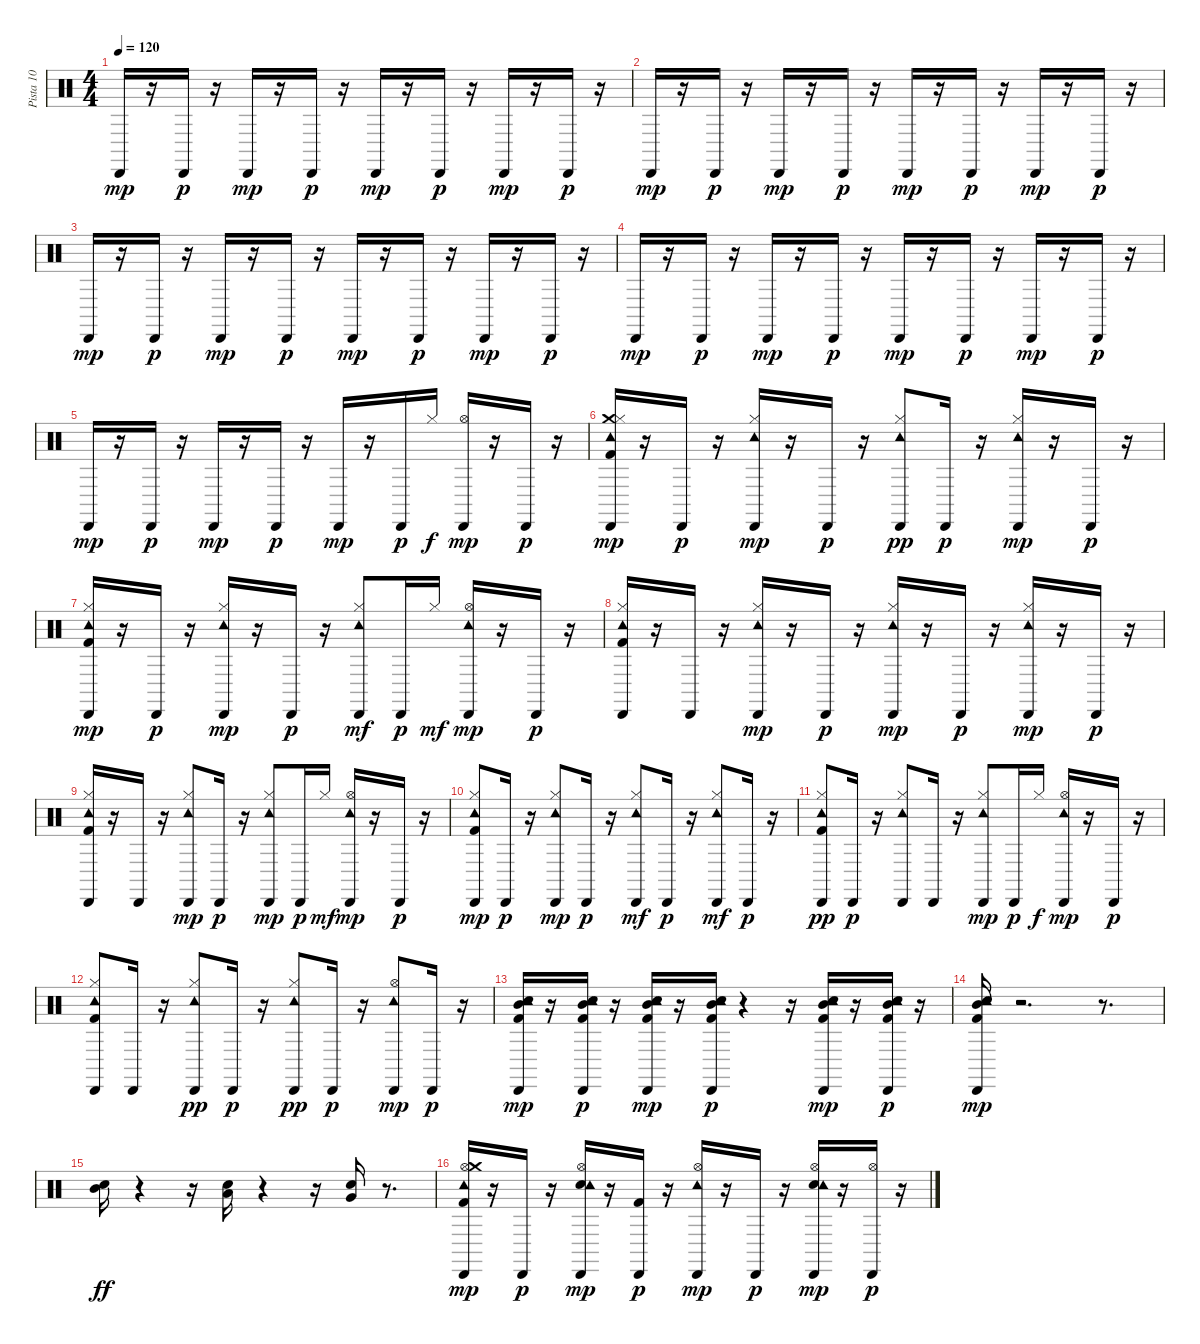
\track ("Pista 10" "Pista 10") {instrument percussion}
\staff {score}
\articulation defaults
\ts (4 4)
\tempo 120
\clef neutral
\ks c "Cabasa (hit)".16{dy mp}
r.16 "Cabasa (hit)".16{dy p} r.16 "Cabasa (hit)".16{dy mp} r.16 "Cabasa (hit)".16{dy p} r.16 "Cabasa (hit)".16{dy mp} r.16 "Cabasa (hit)".16{dy p} r.16 "Cabasa (hit)".16{dy mp} r.16 "Cabasa (hit)".16{dy p} r.16 |
"Cabasa (hit)".16{dy mp} r.16 "Cabasa (hit)".16{dy p} r.16 "Cabasa (hit)".16{dy mp} r.16 "Cabasa (hit)".16{dy p} r.16 "Cabasa (hit)".16{dy mp} r.16 "Cabasa (hit)".16{dy p} r.16 "Cabasa (hit)".16{dy mp} r.16 "Cabasa (hit)".16{dy p} r.16 |
"Cabasa (hit)".16{dy mp} r.16 "Cabasa (hit)".16{dy p} r.16 "Cabasa (hit)".16{dy mp} r.16 "Cabasa (hit)".16{dy p} r.16 "Cabasa (hit)".16{dy mp} r.16 "Cabasa (hit)".16{dy p} r.16 "Cabasa (hit)".16{dy mp} r.16 "Cabasa (hit)".16{dy p} r.16 |
"Cabasa (hit)".16{dy mp} r.16 "Cabasa (hit)".16{dy p} r.16 "Cabasa (hit)".16{dy mp} r.16 "Cabasa (hit)".16{dy p} r.16 "Cabasa (hit)".16{dy mp} r.16 "Cabasa (hit)".16{dy p} r.16 "Cabasa (hit)".16{dy mp} r.16 "Cabasa (hit)".16{dy p} r.16 |
"Cabasa (hit)".16{dy mp} r.16 "Cabasa (hit)".16{dy p} r.16 "Cabasa (hit)".16{dy mp} r.16 "Cabasa (hit)".16{dy p} r.16 "Cabasa (hit)".16{dy mp} r.16 "Cabasa (hit)".16{dy p} "Hi-Hat (closed)".16{dy f} ("Cabasa (hit)" "Hi-Hat (open)").16{dy mp} r.16 "Cabasa (hit)".16{dy p} r.16 |
("Kick (hit) 2" "Crash medium (hit)" "Tambourine (hit)" "Cabasa (hit)" "Hi-Hat (closed)").16{dy mp} r.16 "Cabasa (hit)".16{dy p} r.16 ("Tambourine (hit)" "Cabasa (hit)" "Hi-Hat (closed)").16{dy mp} r.16 "Cabasa (hit)".16{dy p} r.16 ("Hi-Hat (closed)" "Cabasa (hit)" "Tambourine (hit)").8{dy pp} "Cabasa (hit)".16{dy p} r.16 ("Tambourine (hit)" "Cabasa (hit)" "Hi-Hat (closed)").16{dy mp} r.16 "Cabasa (hit)".16{dy p} r.16 |
("Kick (hit) 2" "Hi-Hat (closed)" "Tambourine (hit)" "Cabasa (hit)").16{dy mp} r.16 "Cabasa (hit)".16{dy p} r.16 ("Tambourine (hit)" "Cabasa (hit)" "Hi-Hat (closed)").16{dy mp} r.16 "Cabasa (hit)".16{dy p} r.16 ("Tambourine (hit)" "Cabasa (hit)" "Hi-Hat (closed)").8{dy mf} "Cabasa (hit)".16{dy p} "Hi-Hat (closed)".16{dy mf} ("Hi-Hat (open)" "Tambourine (hit)" "Cabasa (hit)").16{dy mp} r.16 "Cabasa (hit)".16{dy p} r.16 |
("Hi-Hat (closed)" "Cabasa (hit)" "Tambourine (hit)" "Kick (hit) 2").16 r.16 "Cabasa (hit)".16 r.16 ("Tambourine (hit)" "Hi-Hat (closed)" "Cabasa (hit)").16{dy mp} r.16 "Cabasa (hit)".16{dy p} r.16 ("Tambourine (hit)" "Hi-Hat (closed)" "Cabasa (hit)").16{dy mp} r.16 "Cabasa (hit)".16{dy p} r.16 ("Hi-Hat (closed)" "Tambourine (hit)" "Cabasa (hit)").16{dy mp} r.16 "Cabasa (hit)".16{dy p} r.16 |
("Kick (hit) 2" "Hi-Hat (closed)" "Cabasa (hit)" "Tambourine (hit)").16 r.16 "Cabasa (hit)".16 r.16 ("Tambourine (hit)" "Cabasa (hit)" "Hi-Hat (closed)").8{dy mp} "Cabasa (hit)".16{dy p} r.16 ("Hi-Hat (closed)" "Tambourine (hit)" "Cabasa (hit)").8{dy mp} "Cabasa (hit)".16{dy p} "Hi-Hat (closed)".16{dy mf} ("Tambourine (hit)" "Cabasa (hit)" "Hi-Hat (open)").16{dy mp} r.16 "Cabasa (hit)".16{dy p} r.16 |
("Hi-Hat (closed)" "Tambourine (hit)" "Kick (hit) 2" "Cabasa (hit)").8{dy mp} "Cabasa (hit)".16{dy p} r.16 ("Tambourine (hit)" "Hi-Hat (closed)" "Cabasa (hit)").8{dy mp} "Cabasa (hit)".16{dy p} r.16 ("Tambourine (hit)" "Cabasa (hit)" "Hi-Hat (closed)").8{dy mf} "Cabasa (hit)".16{dy p} r.16 ("Hi-Hat (closed)" "Cabasa (hit)" "Tambourine (hit)").8{dy mf} "Cabasa (hit)".16{dy p} r.16 |
("Kick (hit) 2" "Cabasa (hit)" "Tambourine (hit)" "Hi-Hat (closed)").8{dy pp} "Cabasa (hit)".16{dy p} r.16 ("Cabasa (hit)" "Tambourine (hit)" "Hi-Hat (closed)").8 "Cabasa (hit)".16 r.16 ("Tambourine (hit)" "Cabasa (hit)" "Hi-Hat (closed)").8{dy mp} "Cabasa (hit)".16{dy p} "Hi-Hat (closed)".16{dy f} ("Tambourine (hit)" "Cabasa (hit)" "Hi-Hat (open)").16{dy mp} r.16 "Cabasa (hit)".16{dy p} r.16 |
("Cabasa (hit)" "Tambourine (hit)" "Kick (hit) 2" "Hi-Hat (closed)").8 "Cabasa (hit)".16 r.16 ("Cabasa (hit)" "Hi-Hat (closed)" "Tambourine (hit)").8{dy pp} "Cabasa (hit)".16{dy p} r.16 ("Hi-Hat (closed)" "Cabasa (hit)" "Tambourine (hit)").8{dy pp} "Cabasa (hit)".16{dy p} r.16 ("Cabasa (hit)" "Tambourine (hit)" "Hi-Hat (open)").8{dy mp} "Cabasa (hit)".16{dy p} r.16 |
("Kick (hit) 2" "Electric Snare (hit)" "Mid Tom (hit)" "Tambourine (hit)" "Cabasa (hit)").16{dy mp} r.16 ("Electric Snare (hit)" "Mid Tom (hit)" "Cabasa (hit)" "Tambourine (hit)" "Kick (hit) 2").16{dy p} r.16 ("Kick (hit) 2" "Electric Snare (hit)" "Mid Tom (hit)" "Cabasa (hit)" "Tambourine (hit)").16{dy mp} r.16 ("Electric Snare (hit)" "Mid Tom (hit)" "Tambourine (hit)" "Cabasa (hit)" "Kick (hit) 2").16{dy p} r.4 r.16 ("Kick (hit) 2" "Electric Snare (hit)" "Mid Tom (hit)" "Tambourine (hit)" "Cabasa (hit)").16{dy mp} r.16 ("Kick (hit) 2" "Electric Snare (hit)" "Mid Tom (hit)" "Tambourine (hit)" "Cabasa (hit)").16{dy p} r.16 |
("Kick (hit) 2" "Electric Snare (hit)" "Mid Tom (hit)" "Tambourine (hit)" "Cabasa (hit)").16{dy mp} r.2{d} r.8{d} |
("Electric Snare (hit)" "Mid Tom (hit)").16{dy ff} r.4 r.16 ("Electric Snare (hit)" "Low Tom (hit)").16 r.4 r.16 ("Electric Snare (hit)" "Very Low Tom (hit)").16 r.8{d} |
("Kick (hit) 2" "Hi-Hat (open)" "Crash medium (hit)" "Tambourine (hit)" "Cabasa (hit)").16{dy mp} r.16 "Cabasa (hit)".16{dy p} r.16 ("Electric Snare (hit)" "Hi-Hat (open)" "Cabasa (hit)" "Tambourine (hit)").16{dy mp} r.16 ("Kick (hit) 2" "Cabasa (hit)").16{dy p} r.16 ("Hi-Hat (open)" "Cabasa (hit)" "Tambourine (hit)").16{dy mp} r.16 "Cabasa (hit)".16{dy p} r.16 ("Electric Snare (hit)" "Hi-Hat (open)" "Tambourine (hit)" "Cabasa (hit)").16{dy mp} r.16 ("Hi-Hat (open)" "Cabasa (hit)").16{dy p} r.16
